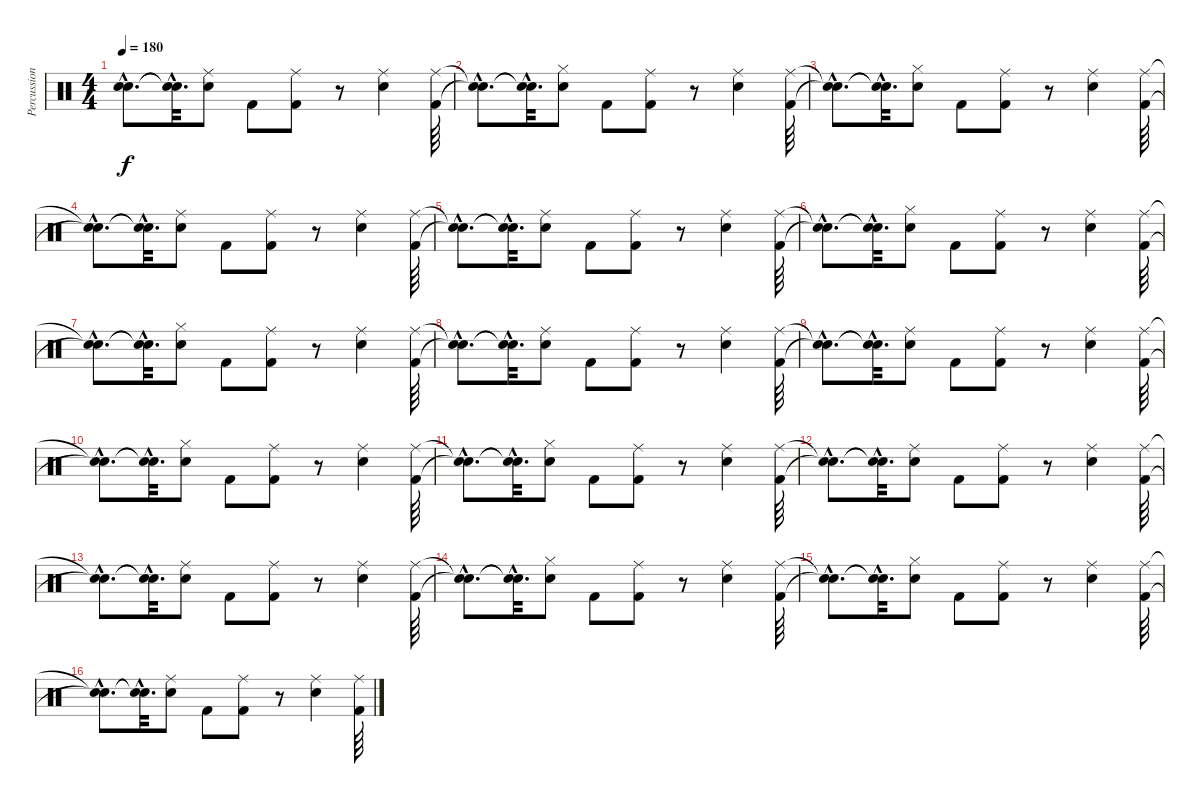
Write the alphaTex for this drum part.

\track ("Percussion" "Percussion") {instrument percussion}
\staff {score}
\articulation defaults
\ts (4 4)
\tempo 180
\clef neutral
\ks c
("Snare (hit)"{hac t} "Snare (hit)"{hac t}).8{d dy f} ("Snare (hit)"{hac t} "Snare (hit)"{hac t}).32{d} ("Snare (hit) 2" "Ride (middle)").8 "Kick (hit) 2".8 ("Kick (hit) 2" "Ride (middle)").8 r.8 ("Ride (middle)" "Snare (hit) 2").4 ("Kick (hit) 2" "Ride (middle)").64 |
("Snare (hit)"{hac t} "Snare (hit)"{hac t}).8{d} ("Snare (hit)"{hac t} "Snare (hit)"{hac t}).32{d} ("Hi-Hat (closed)" "Snare (hit) 2").8 "Kick (hit) 2".8 ("Ride (middle)" "Kick (hit) 2").8 r.8 ("Ride (middle)" "Snare (hit) 2").4 ("Ride (middle)" "Kick (hit) 2").64 |
("Snare (hit)"{hac t} "Snare (hit)"{hac t}).8{d} ("Snare (hit)"{hac t} "Snare (hit)"{hac t}).32{d} ("Hi-Hat (closed)" "Snare (hit) 2").8 "Kick (hit) 2".8 ("Ride (middle)" "Kick (hit) 2").8 r.8 ("Ride (middle)" "Snare (hit) 2").4 ("Ride (middle)" "Kick (hit) 2").64 |
("Snare (hit)"{hac t} "Snare (hit)"{hac t}).8{d} ("Snare (hit)"{hac t} "Snare (hit)"{hac t}).32{d} ("Snare (hit) 2" "Ride (middle)").8 "Kick (hit) 2".8 ("Kick (hit) 2" "Ride (middle)").8 r.8 ("Ride (middle)" "Snare (hit) 2").4 ("Kick (hit) 2" "Ride (middle)").64 |
("Snare (hit)"{hac t} "Snare (hit)"{hac t}).8{d} ("Snare (hit)"{hac t} "Snare (hit)"{hac t}).32{d} ("Snare (hit) 2" "Ride (middle)").8 "Kick (hit) 2".8 ("Kick (hit) 2" "Ride (middle)").8 r.8 ("Ride (middle)" "Snare (hit) 2").4 ("Kick (hit) 2" "Ride (middle)").64 |
("Snare (hit)"{hac t} "Snare (hit)"{hac t}).8{d} ("Snare (hit)"{hac t} "Snare (hit)"{hac t}).32{d} ("Hi-Hat (closed)" "Snare (hit) 2").8 "Kick (hit) 2".8 ("Ride (middle)" "Kick (hit) 2").8 r.8 ("Ride (middle)" "Snare (hit) 2").4 ("Ride (middle)" "Kick (hit) 2").64 |
("Snare (hit)"{hac t} "Snare (hit)"{hac t}).8{d} ("Snare (hit)"{hac t} "Snare (hit)"{hac t}).32{d} ("Hi-Hat (closed)" "Snare (hit) 2").8 "Kick (hit) 2".8 ("Ride (middle)" "Kick (hit) 2").8 r.8 ("Ride (middle)" "Snare (hit) 2").4 ("Ride (middle)" "Kick (hit) 2").64 |
("Snare (hit)"{hac t} "Snare (hit)"{hac t}).8{d} ("Snare (hit)"{hac t} "Snare (hit)"{hac t}).32{d} ("Snare (hit) 2" "Ride (middle)").8 "Kick (hit) 2".8 ("Kick (hit) 2" "Ride (middle)").8 r.8 ("Ride (middle)" "Snare (hit) 2").4 ("Kick (hit) 2" "Ride (middle)").64 |
("Snare (hit)"{hac t} "Snare (hit)"{hac t}).8{d} ("Snare (hit)"{hac t} "Snare (hit)"{hac t}).32{d} ("Snare (hit) 2" "Ride (middle)").8 "Kick (hit) 2".8 ("Kick (hit) 2" "Ride (middle)").8 r.8 ("Ride (middle)" "Snare (hit) 2").4 ("Kick (hit) 2" "Ride (middle)").64 |
("Snare (hit)"{hac t} "Snare (hit)"{hac t}).8{d} ("Snare (hit)"{hac t} "Snare (hit)"{hac t}).32{d} ("Hi-Hat (closed)" "Snare (hit) 2").8 "Kick (hit) 2".8 ("Ride (middle)" "Kick (hit) 2").8 r.8 ("Ride (middle)" "Snare (hit) 2").4 ("Ride (middle)" "Kick (hit) 2").64 |
("Snare (hit)"{hac t} "Snare (hit)"{hac t}).8{d} ("Snare (hit)"{hac t} "Snare (hit)"{hac t}).32{d} ("Hi-Hat (closed)" "Snare (hit) 2").8 "Kick (hit) 2".8 ("Ride (middle)" "Kick (hit) 2").8 r.8 ("Ride (middle)" "Snare (hit) 2").4 ("Ride (middle)" "Kick (hit) 2").64 |
("Snare (hit)"{hac t} "Snare (hit)"{hac t}).8{d} ("Snare (hit)"{hac t} "Snare (hit)"{hac t}).32{d} ("Snare (hit) 2" "Ride (middle)").8 "Kick (hit) 2".8 ("Kick (hit) 2" "Ride (middle)").8 r.8 ("Ride (middle)" "Snare (hit) 2").4 ("Kick (hit) 2" "Ride (middle)").64 |
("Snare (hit)"{hac t} "Snare (hit)"{hac t}).8{d} ("Snare (hit)"{hac t} "Snare (hit)"{hac t}).32{d} ("Snare (hit) 2" "Ride (middle)").8 "Kick (hit) 2".8 ("Kick (hit) 2" "Ride (middle)").8 r.8 ("Ride (middle)" "Snare (hit) 2").4 ("Kick (hit) 2" "Ride (middle)").64 |
("Snare (hit)"{hac t} "Snare (hit)"{hac t}).8{d} ("Snare (hit)"{hac t} "Snare (hit)"{hac t}).32{d} ("Hi-Hat (closed)" "Snare (hit) 2").8 "Kick (hit) 2".8 ("Ride (middle)" "Kick (hit) 2").8 r.8 ("Ride (middle)" "Snare (hit) 2").4 ("Ride (middle)" "Kick (hit) 2").64 |
("Snare (hit)"{hac t} "Snare (hit)"{hac t}).8{d} ("Snare (hit)"{hac t} "Snare (hit)"{hac t}).32{d} ("Hi-Hat (closed)" "Snare (hit) 2").8 "Kick (hit) 2".8 ("Ride (middle)" "Kick (hit) 2").8 r.8 ("Ride (middle)" "Snare (hit) 2").4 ("Ride (middle)" "Kick (hit) 2").64 |
("Snare (hit)"{hac t} "Snare (hit)"{hac t}).8{d} ("Snare (hit)"{hac t} "Snare (hit)"{hac t}).32{d} ("Snare (hit) 2" "Ride (middle)").8 "Kick (hit) 2".8 ("Kick (hit) 2" "Ride (middle)").8 r.8 ("Ride (middle)" "Snare (hit) 2").4 ("Kick (hit) 2" "Ride (middle)").64
